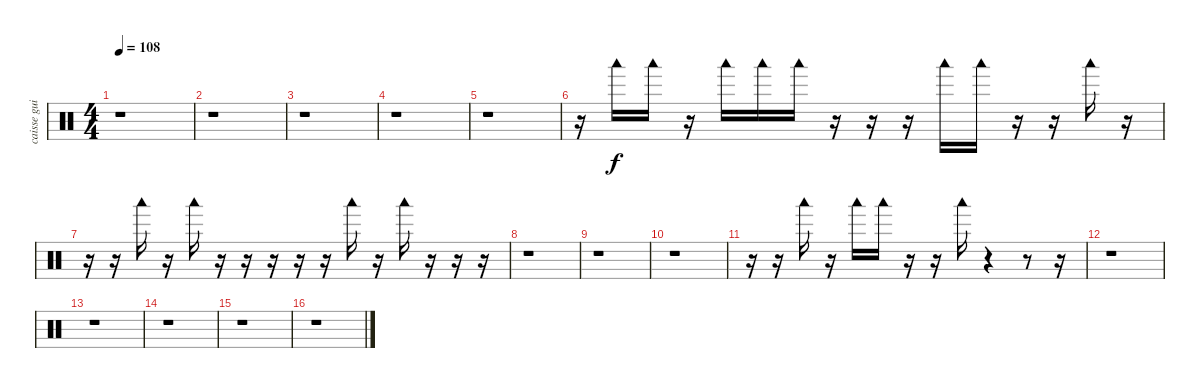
\track ("caisse guitare Di Meola" "caisse gui") {instrument percussion}
\staff {score}
\articulation defaults
\ts (4 4)
\tempo 108
\clef neutral
\ks c
r.1{dy f} |
r.1 |
r.1 |
r.1 |
r.1 |
r.16 "Woodblock low (hit)".16 "Woodblock low (hit)".16 r.16 "Woodblock low (hit)".16 "Woodblock low (hit)".16 "Woodblock low (hit)".16 r.16 r.16 r.16 "Woodblock low (hit)".16 "Woodblock low (hit)".16 r.16 r.16 "Woodblock low (hit)".16 r.16 |
r.16 r.16 "Woodblock low (hit)".16 r.16 "Woodblock low (hit)".16 r.16 r.16 r.16 r.16 r.16 "Woodblock low (hit)".16 r.16 "Woodblock low (hit)".16 r.16 r.16 r.16 |
r.1 |
r.1 |
r.1 |
r.16 r.16 "Woodblock low (hit)".16 r.16 "Woodblock low (hit)".16 "Woodblock low (hit)".16 r.16 r.16 "Woodblock low (hit)".16 r.4 r.8 r.16 |
r.1 |
r.1 |
r.1 |
r.1 |
r.1
